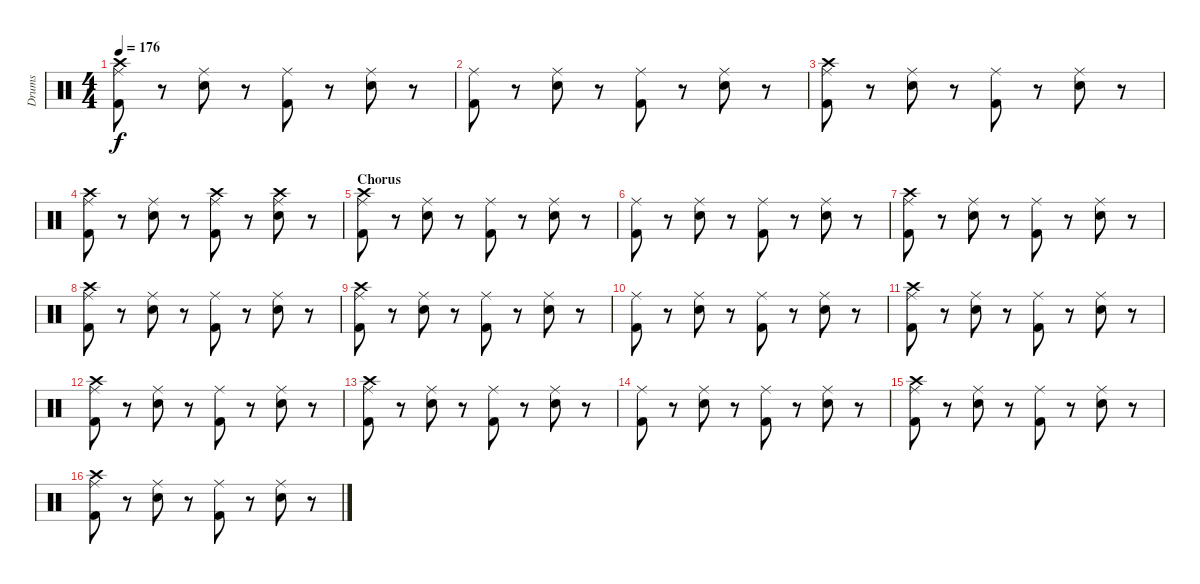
\track ("Drums" "Drums") {instrument percussion}
\staff {score}
\articulation defaults
\ts (4 4)
\tempo 176
\clef neutral
\ks c
("Crash high (hit)" "Ride (middle)" "Kick (hit) 2").8{dy f} r.8 ("Ride (middle)" "Electric Snare (hit)").8 r.8 ("Ride (middle)" "Kick (hit) 2").8 r.8 ("Ride (middle)" "Electric Snare (hit)").8 r.8 |
("Ride (middle)" "Kick (hit) 2").8 r.8 ("Ride (middle)" "Electric Snare (hit)").8 r.8 ("Ride (middle)" "Kick (hit) 2").8 r.8 ("Ride (middle)" "Electric Snare (hit)").8 r.8 |
("Crash high (hit)" "Ride (middle)" "Kick (hit) 2").8 r.8 ("Ride (middle)" "Electric Snare (hit)").8 r.8 ("Ride (middle)" "Kick (hit) 2").8 r.8 ("Ride (middle)" "Electric Snare (hit)").8 r.8 |
("Crash high (hit)" "Ride (middle)" "Kick (hit) 2").8 r.8 ("Ride (middle)" "Electric Snare (hit)").8 r.8 ("Crash high (hit)" "Ride (middle)" "Kick (hit) 2").8 r.8 ("Crash high (hit)" "Ride (middle)" "Electric Snare (hit)").8 r.8 |
\section ("" "Chorus")
("Crash high (hit)" "Ride (middle)" "Kick (hit) 2").8 r.8 ("Ride (middle)" "Electric Snare (hit)").8 r.8 ("Ride (middle)" "Kick (hit) 2").8 r.8 ("Ride (middle)" "Electric Snare (hit)").8 r.8 |
("Ride (middle)" "Kick (hit) 2").8 r.8 ("Ride (middle)" "Electric Snare (hit)").8 r.8 ("Ride (middle)" "Kick (hit) 2").8 r.8 ("Ride (middle)" "Electric Snare (hit)").8 r.8 |
("Crash high (hit)" "Ride (middle)" "Kick (hit) 2").8 r.8 ("Ride (middle)" "Electric Snare (hit)").8 r.8 ("Ride (middle)" "Kick (hit) 2").8 r.8 ("Ride (middle)" "Electric Snare (hit)").8 r.8 |
("Crash high (hit)" "Ride (middle)" "Kick (hit) 2").8 r.8 ("Ride (middle)" "Electric Snare (hit)").8 r.8 ("Ride (middle)" "Kick (hit) 2").8 r.8 ("Ride (middle)" "Electric Snare (hit)").8 r.8 |
("Crash high (hit)" "Ride (middle)" "Kick (hit) 2").8 r.8 ("Ride (middle)" "Electric Snare (hit)").8 r.8 ("Ride (middle)" "Kick (hit) 2").8 r.8 ("Ride (middle)" "Electric Snare (hit)").8 r.8 |
("Ride (middle)" "Kick (hit) 2").8 r.8 ("Ride (middle)" "Electric Snare (hit)").8 r.8 ("Ride (middle)" "Kick (hit) 2").8 r.8 ("Ride (middle)" "Electric Snare (hit)").8 r.8 |
("Crash high (hit)" "Ride (middle)" "Kick (hit) 2").8 r.8 ("Ride (middle)" "Electric Snare (hit)").8 r.8 ("Ride (middle)" "Kick (hit) 2").8 r.8 ("Ride (middle)" "Electric Snare (hit)").8 r.8 |
("Crash high (hit)" "Ride (middle)" "Kick (hit) 2").8 r.8 ("Ride (middle)" "Electric Snare (hit)").8 r.8 ("Ride (middle)" "Kick (hit) 2").8 r.8 ("Ride (middle)" "Electric Snare (hit)").8 r.8 |
("Crash high (hit)" "Ride (middle)" "Kick (hit) 2").8 r.8 ("Ride (middle)" "Electric Snare (hit)").8 r.8 ("Ride (middle)" "Kick (hit) 2").8 r.8 ("Ride (middle)" "Electric Snare (hit)").8 r.8 |
("Ride (middle)" "Kick (hit) 2").8 r.8 ("Ride (middle)" "Electric Snare (hit)").8 r.8 ("Ride (middle)" "Kick (hit) 2").8 r.8 ("Ride (middle)" "Electric Snare (hit)").8 r.8 |
("Crash high (hit)" "Ride (middle)" "Kick (hit) 2").8 r.8 ("Ride (middle)" "Electric Snare (hit)").8 r.8 ("Ride (middle)" "Kick (hit) 2").8 r.8 ("Ride (middle)" "Electric Snare (hit)").8 r.8 |
("Crash high (hit)" "Ride (middle)" "Kick (hit) 2").8 r.8 ("Ride (middle)" "Electric Snare (hit)").8 r.8 ("Ride (middle)" "Kick (hit) 2").8 r.8 ("Ride (middle)" "Electric Snare (hit)").8 r.8
